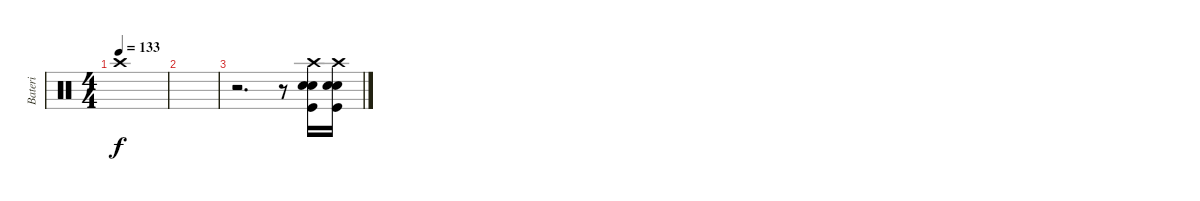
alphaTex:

\track ("Bateri" "Bateri") {instrument percussion}
\staff {score}
\articulation defaults
\ts (4 4)
\tempo 133
\clef neutral
\ks c "Crash high (hit)".1{dy f}
|
|
r.2{d} r.8 ("Crash high (hit)" "Snare (hit) 2" "Electric Snare (hit)" "Kick (hit)").16 ("Crash high (hit)" "Snare (hit) 2" "Electric Snare (hit)" "Kick (hit)").16
